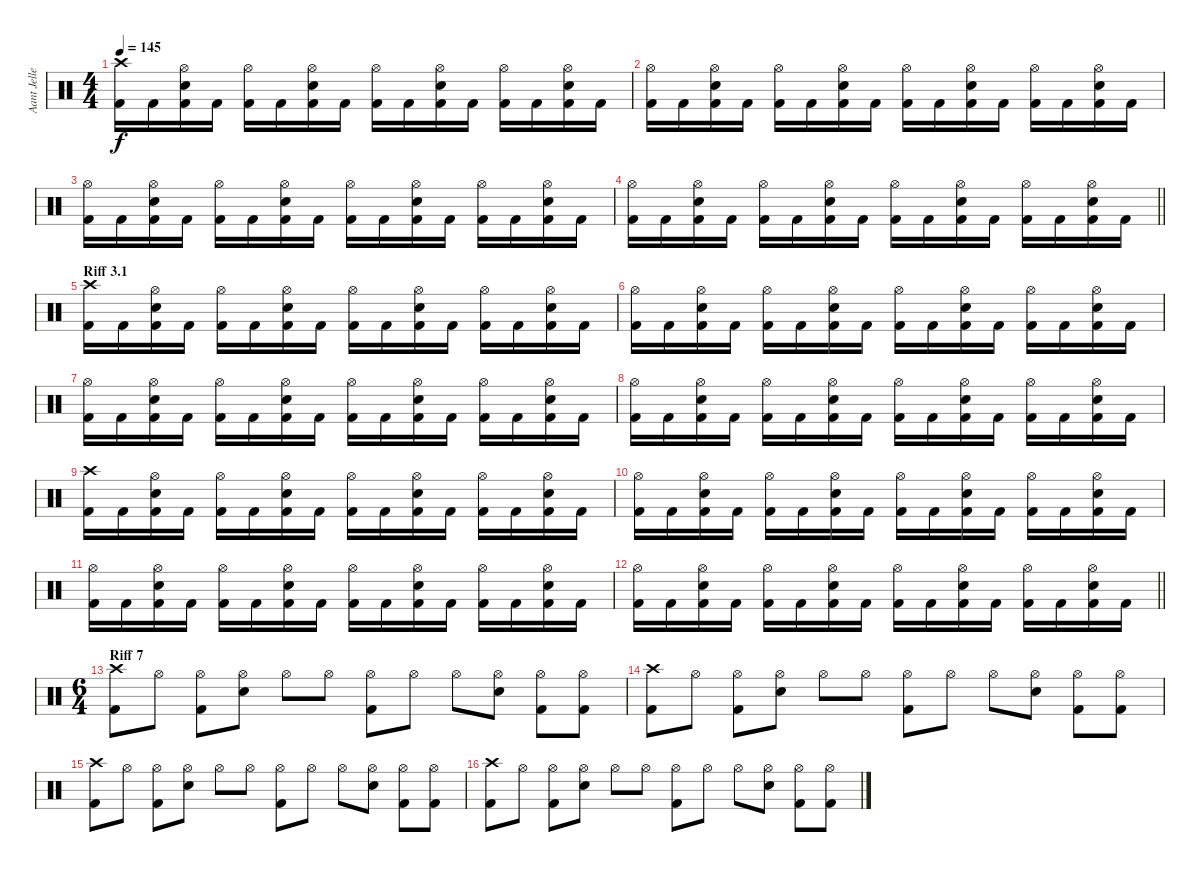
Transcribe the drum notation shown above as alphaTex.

\track ("Aant Jelle" "Aant Jelle") {instrument percussion}
\staff {score}
\articulation defaults
\ts (4 4)
\tempo 145
\clef neutral
\ks c
("Crash high (hit)" "Kick (hit) 2").16{dy f} "Kick (hit) 2".16 ("Hi-Hat (open)" "Electric Snare (hit)" "Kick (hit) 2").16 "Kick (hit) 2".16 ("Hi-Hat (open)" "Kick (hit) 2").16 "Kick (hit) 2".16 ("Hi-Hat (open)" "Electric Snare (hit)" "Kick (hit) 2").16 "Kick (hit) 2".16 ("Hi-Hat (open)" "Kick (hit) 2").16 "Kick (hit) 2".16 ("Hi-Hat (open)" "Electric Snare (hit)" "Kick (hit) 2").16 "Kick (hit) 2".16 ("Hi-Hat (open)" "Kick (hit) 2").16 "Kick (hit) 2".16 ("Hi-Hat (open)" "Electric Snare (hit)" "Kick (hit) 2").16 "Kick (hit) 2".16 |
("Hi-Hat (open)" "Kick (hit) 2").16 "Kick (hit) 2".16 ("Hi-Hat (open)" "Electric Snare (hit)" "Kick (hit) 2").16 "Kick (hit) 2".16 ("Hi-Hat (open)" "Kick (hit) 2").16 "Kick (hit) 2".16 ("Hi-Hat (open)" "Electric Snare (hit)" "Kick (hit) 2").16 "Kick (hit) 2".16 ("Hi-Hat (open)" "Kick (hit) 2").16 "Kick (hit) 2".16 ("Hi-Hat (open)" "Electric Snare (hit)" "Kick (hit) 2").16 "Kick (hit) 2".16 ("Hi-Hat (open)" "Kick (hit) 2").16 "Kick (hit) 2".16 ("Hi-Hat (open)" "Electric Snare (hit)" "Kick (hit) 2").16 "Kick (hit) 2".16 |
("Hi-Hat (open)" "Kick (hit) 2").16 "Kick (hit) 2".16 ("Hi-Hat (open)" "Electric Snare (hit)" "Kick (hit) 2").16 "Kick (hit) 2".16 ("Hi-Hat (open)" "Kick (hit) 2").16 "Kick (hit) 2".16 ("Hi-Hat (open)" "Electric Snare (hit)" "Kick (hit) 2").16 "Kick (hit) 2".16 ("Hi-Hat (open)" "Kick (hit) 2").16 "Kick (hit) 2".16 ("Hi-Hat (open)" "Electric Snare (hit)" "Kick (hit) 2").16 "Kick (hit) 2".16 ("Hi-Hat (open)" "Kick (hit) 2").16 "Kick (hit) 2".16 ("Hi-Hat (open)" "Electric Snare (hit)" "Kick (hit) 2").16 "Kick (hit) 2".16 |
\barLineRight lightlight
("Hi-Hat (open)" "Kick (hit) 2").16 "Kick (hit) 2".16 ("Hi-Hat (open)" "Electric Snare (hit)" "Kick (hit) 2").16 "Kick (hit) 2".16 ("Hi-Hat (open)" "Kick (hit) 2").16 "Kick (hit) 2".16 ("Hi-Hat (open)" "Electric Snare (hit)" "Kick (hit) 2").16 "Kick (hit) 2".16 ("Hi-Hat (open)" "Kick (hit) 2").16 "Kick (hit) 2".16 ("Hi-Hat (open)" "Electric Snare (hit)" "Kick (hit) 2").16 "Kick (hit) 2".16 ("Hi-Hat (open)" "Kick (hit) 2").16 "Kick (hit) 2".16 ("Hi-Hat (open)" "Electric Snare (hit)" "Kick (hit) 2").16 "Kick (hit) 2".16 |
\section ("" "Riff 3.1")
("Crash high (hit)" "Kick (hit) 2").16 "Kick (hit) 2".16 ("Hi-Hat (open)" "Electric Snare (hit)" "Kick (hit) 2").16 "Kick (hit) 2".16 ("Hi-Hat (open)" "Kick (hit) 2").16 "Kick (hit) 2".16 ("Hi-Hat (open)" "Electric Snare (hit)" "Kick (hit) 2").16 "Kick (hit) 2".16 ("Hi-Hat (open)" "Kick (hit) 2").16 "Kick (hit) 2".16 ("Hi-Hat (open)" "Electric Snare (hit)" "Kick (hit) 2").16 "Kick (hit) 2".16 ("Hi-Hat (open)" "Kick (hit) 2").16 "Kick (hit) 2".16 ("Hi-Hat (open)" "Electric Snare (hit)" "Kick (hit) 2").16 "Kick (hit) 2".16 |
("Hi-Hat (open)" "Kick (hit) 2").16 "Kick (hit) 2".16 ("Hi-Hat (open)" "Electric Snare (hit)" "Kick (hit) 2").16 "Kick (hit) 2".16 ("Hi-Hat (open)" "Kick (hit) 2").16 "Kick (hit) 2".16 ("Hi-Hat (open)" "Electric Snare (hit)" "Kick (hit) 2").16 "Kick (hit) 2".16 ("Hi-Hat (open)" "Kick (hit) 2").16 "Kick (hit) 2".16 ("Hi-Hat (open)" "Electric Snare (hit)" "Kick (hit) 2").16 "Kick (hit) 2".16 ("Hi-Hat (open)" "Kick (hit) 2").16 "Kick (hit) 2".16 ("Hi-Hat (open)" "Electric Snare (hit)" "Kick (hit) 2").16 "Kick (hit) 2".16 |
("Hi-Hat (open)" "Kick (hit) 2").16 "Kick (hit) 2".16 ("Hi-Hat (open)" "Electric Snare (hit)" "Kick (hit) 2").16 "Kick (hit) 2".16 ("Hi-Hat (open)" "Kick (hit) 2").16 "Kick (hit) 2".16 ("Hi-Hat (open)" "Electric Snare (hit)" "Kick (hit) 2").16 "Kick (hit) 2".16 ("Hi-Hat (open)" "Kick (hit) 2").16 "Kick (hit) 2".16 ("Hi-Hat (open)" "Electric Snare (hit)" "Kick (hit) 2").16 "Kick (hit) 2".16 ("Hi-Hat (open)" "Kick (hit) 2").16 "Kick (hit) 2".16 ("Hi-Hat (open)" "Electric Snare (hit)" "Kick (hit) 2").16 "Kick (hit) 2".16 |
("Hi-Hat (open)" "Kick (hit) 2").16 "Kick (hit) 2".16 ("Hi-Hat (open)" "Electric Snare (hit)" "Kick (hit) 2").16 "Kick (hit) 2".16 ("Hi-Hat (open)" "Kick (hit) 2").16 "Kick (hit) 2".16 ("Hi-Hat (open)" "Electric Snare (hit)" "Kick (hit) 2").16 "Kick (hit) 2".16 ("Hi-Hat (open)" "Kick (hit) 2").16 "Kick (hit) 2".16 ("Hi-Hat (open)" "Electric Snare (hit)" "Kick (hit) 2").16 "Kick (hit) 2".16 ("Hi-Hat (open)" "Kick (hit) 2").16 "Kick (hit) 2".16 ("Hi-Hat (open)" "Electric Snare (hit)" "Kick (hit) 2").16 "Kick (hit) 2".16 |
("Crash high (hit)" "Kick (hit) 2").16 "Kick (hit) 2".16 ("Hi-Hat (open)" "Electric Snare (hit)" "Kick (hit) 2").16 "Kick (hit) 2".16 ("Hi-Hat (open)" "Kick (hit) 2").16 "Kick (hit) 2".16 ("Hi-Hat (open)" "Electric Snare (hit)" "Kick (hit) 2").16 "Kick (hit) 2".16 ("Hi-Hat (open)" "Kick (hit) 2").16 "Kick (hit) 2".16 ("Hi-Hat (open)" "Electric Snare (hit)" "Kick (hit) 2").16 "Kick (hit) 2".16 ("Hi-Hat (open)" "Kick (hit) 2").16 "Kick (hit) 2".16 ("Hi-Hat (open)" "Electric Snare (hit)" "Kick (hit) 2").16 "Kick (hit) 2".16 |
("Hi-Hat (open)" "Kick (hit) 2").16 "Kick (hit) 2".16 ("Hi-Hat (open)" "Electric Snare (hit)" "Kick (hit) 2").16 "Kick (hit) 2".16 ("Hi-Hat (open)" "Kick (hit) 2").16 "Kick (hit) 2".16 ("Hi-Hat (open)" "Electric Snare (hit)" "Kick (hit) 2").16 "Kick (hit) 2".16 ("Hi-Hat (open)" "Kick (hit) 2").16 "Kick (hit) 2".16 ("Hi-Hat (open)" "Electric Snare (hit)" "Kick (hit) 2").16 "Kick (hit) 2".16 ("Hi-Hat (open)" "Kick (hit) 2").16 "Kick (hit) 2".16 ("Hi-Hat (open)" "Electric Snare (hit)" "Kick (hit) 2").16 "Kick (hit) 2".16 |
("Hi-Hat (open)" "Kick (hit) 2").16 "Kick (hit) 2".16 ("Hi-Hat (open)" "Electric Snare (hit)" "Kick (hit) 2").16 "Kick (hit) 2".16 ("Hi-Hat (open)" "Kick (hit) 2").16 "Kick (hit) 2".16 ("Hi-Hat (open)" "Electric Snare (hit)" "Kick (hit) 2").16 "Kick (hit) 2".16 ("Hi-Hat (open)" "Kick (hit) 2").16 "Kick (hit) 2".16 ("Hi-Hat (open)" "Electric Snare (hit)" "Kick (hit) 2").16 "Kick (hit) 2".16 ("Hi-Hat (open)" "Kick (hit) 2").16 "Kick (hit) 2".16 ("Hi-Hat (open)" "Electric Snare (hit)" "Kick (hit) 2").16 "Kick (hit) 2".16 |
\barLineRight lightlight
("Hi-Hat (open)" "Kick (hit) 2").16 "Kick (hit) 2".16 ("Hi-Hat (open)" "Electric Snare (hit)" "Kick (hit) 2").16 "Kick (hit) 2".16 ("Hi-Hat (open)" "Kick (hit) 2").16 "Kick (hit) 2".16 ("Hi-Hat (open)" "Electric Snare (hit)" "Kick (hit) 2").16 "Kick (hit) 2".16 ("Hi-Hat (open)" "Kick (hit) 2").16 "Kick (hit) 2".16 ("Hi-Hat (open)" "Electric Snare (hit)" "Kick (hit) 2").16 "Kick (hit) 2".16 ("Hi-Hat (open)" "Kick (hit) 2").16 "Kick (hit) 2".16 ("Hi-Hat (open)" "Electric Snare (hit)" "Kick (hit) 2").16 "Kick (hit) 2".16 |
\ts (6 4)
\section ("" "Riff 7")
("Crash high (hit)" "Kick (hit) 2").8 "Hi-Hat (open)".8 ("Hi-Hat (open)" "Kick (hit) 2").8 ("Hi-Hat (open)" "Snare (hit) 2").8 "Hi-Hat (open)".8 "Hi-Hat (open)".8 ("Hi-Hat (open)" "Kick (hit) 2").8 "Hi-Hat (open)".8 "Hi-Hat (open)".8 ("Hi-Hat (open)" "Snare (hit) 2").8 ("Hi-Hat (open)" "Kick (hit) 2").8 ("Hi-Hat (open)" "Kick (hit) 2").8 |
("Crash high (hit)" "Kick (hit) 2").8 "Hi-Hat (open)".8 ("Hi-Hat (open)" "Kick (hit) 2").8 ("Hi-Hat (open)" "Snare (hit) 2").8 "Hi-Hat (open)".8 "Hi-Hat (open)".8 ("Hi-Hat (open)" "Kick (hit) 2").8 "Hi-Hat (open)".8 "Hi-Hat (open)".8 ("Hi-Hat (open)" "Snare (hit) 2").8 ("Hi-Hat (open)" "Kick (hit) 2").8 ("Hi-Hat (open)" "Kick (hit) 2").8 |
("Crash high (hit)" "Kick (hit) 2").8 "Hi-Hat (open)".8 ("Hi-Hat (open)" "Kick (hit) 2").8 ("Hi-Hat (open)" "Snare (hit) 2").8 "Hi-Hat (open)".8 "Hi-Hat (open)".8 ("Hi-Hat (open)" "Kick (hit) 2").8 "Hi-Hat (open)".8 "Hi-Hat (open)".8 ("Hi-Hat (open)" "Snare (hit) 2").8 ("Hi-Hat (open)" "Kick (hit) 2").8 ("Hi-Hat (open)" "Kick (hit) 2").8 |
("Crash high (hit)" "Kick (hit) 2").8 "Hi-Hat (open)".8 ("Hi-Hat (open)" "Kick (hit) 2").8 ("Hi-Hat (open)" "Snare (hit) 2").8 "Hi-Hat (open)".8 "Hi-Hat (open)".8 ("Hi-Hat (open)" "Kick (hit) 2").8 "Hi-Hat (open)".8 "Hi-Hat (open)".8 ("Hi-Hat (open)" "Snare (hit) 2").8 ("Hi-Hat (open)" "Kick (hit) 2").8 ("Hi-Hat (open)" "Kick (hit) 2").8
